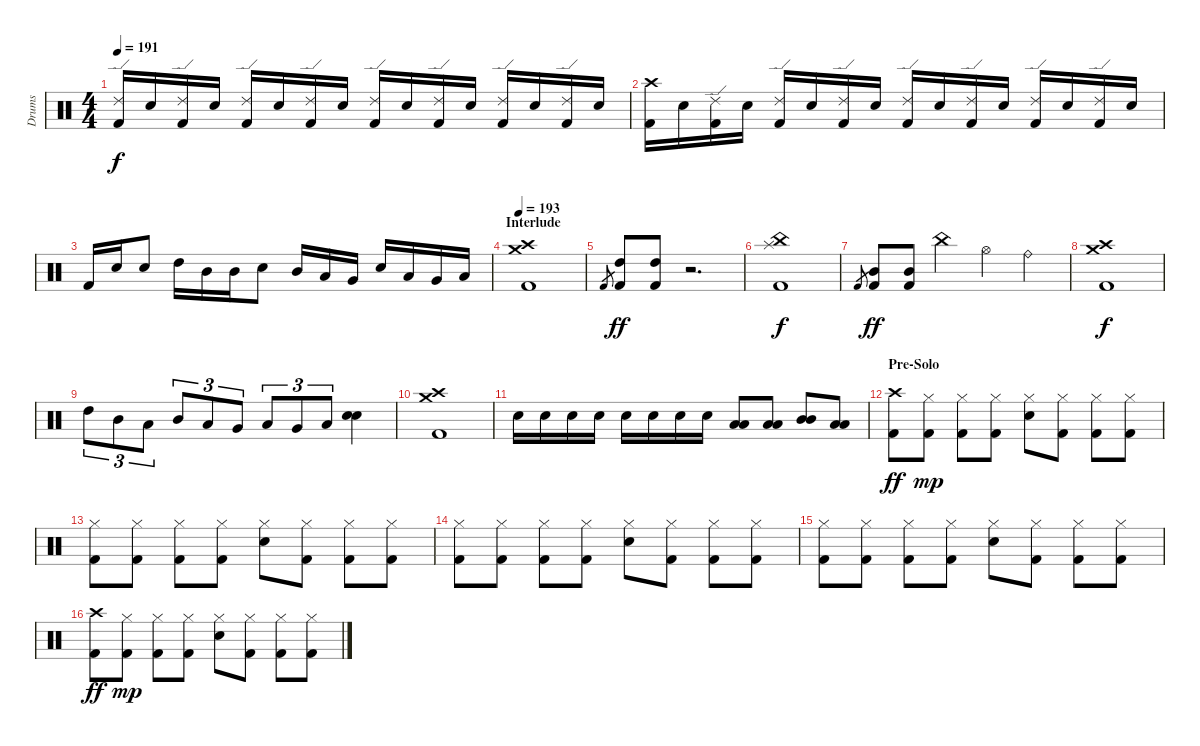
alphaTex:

\track ("Drums" "Drums") {instrument percussion}
\staff {score}
\articulation defaults
\ts (4 4)
\tempo 191
\clef neutral
\ks c
("Ride (edge) 2" "Kick (hit) 2").16{dy f} "Electric Snare (hit)".16 ("Ride (edge) 2" "Kick (hit) 2").16 "Electric Snare (hit)".16 ("Ride (edge) 2" "Kick (hit) 2").16 "Electric Snare (hit)".16 ("Ride (edge) 2" "Kick (hit) 2").16 "Electric Snare (hit)".16 ("Ride (edge) 2" "Kick (hit) 2").16 "Electric Snare (hit)".16 ("Ride (edge) 2" "Kick (hit) 2").16 "Electric Snare (hit)".16 ("Ride (edge) 2" "Kick (hit) 2").16 "Electric Snare (hit)".16 ("Ride (edge) 2" "Kick (hit) 2").16 "Electric Snare (hit)".16 |
("Crash high (hit)" "Kick (hit) 2").16 "Electric Snare (hit)".16 ("Ride (edge) 2" "Kick (hit) 2").16 "Electric Snare (hit)".16 ("Ride (edge) 2" "Kick (hit) 2").16 "Electric Snare (hit)".16 ("Ride (edge) 2" "Kick (hit) 2").16 "Electric Snare (hit)".16 ("Ride (edge) 2" "Kick (hit) 2").16 "Electric Snare (hit)".16 ("Ride (edge) 2" "Kick (hit) 2").16 "Electric Snare (hit)".16 ("Ride (edge) 2" "Kick (hit) 2").16 "Electric Snare (hit)".16 ("Ride (edge) 2" "Kick (hit) 2").16 "Electric Snare (hit)".16 |
"Kick (hit) 2".16 "Electric Snare (hit)".16 "Electric Snare (hit)".8 "High Tom (hit)".16 "Mid Tom (hit)".16 "Mid Tom (hit)".16 "Electric Snare (hit)".8 "Mid Tom (hit)".16 "Low Tom (hit)".16 "Very Low Tom (hit)".16 "Electric Snare (hit)".16 "Low Tom (hit)".16 "Very Low Tom (hit)".16 "Low Floor Tom (hit)".16 |
\section ("" "Interlude")
\tempo 193
("Crash medium (hit)" "Crash high (hit)" "Kick (hit) 2").1 |
"Kick (hit) 2".8{gr} ("High Tom (hit)" "Kick (hit) 2").8{dy ff} ("High Tom (hit)" "Kick (hit) 2").8 r.2{d} |
("China (hit)" "Splash (hit)" "Kick (hit) 2").1{dy f} |
"Kick (hit) 2".8{gr} ("Mid Tom (hit)" "Kick (hit) 2").8{dy ff} ("Mid Tom (hit)" "Kick (hit) 2").8 "China (hit)".4 "Hi-Hat (open)".4 "Ride (bell)".4 |
("Crash medium (hit)" "Crash high (hit)" "Kick (hit) 2").1{dy f} |
"High Tom (hit)".8{tu (3 2)} "Mid Tom (hit)".8{tu (3 2)} "Low Tom (hit)".8{tu (3 2)} "Mid Tom (hit)".8{tu (3 2)} "Low Tom (hit)".8{tu (3 2)} "Very Low Tom (hit)".8{tu (3 2)} "Low Tom (hit)".8{tu (3 2)} "Very Low Tom (hit)".8{tu (3 2)} "Low Floor Tom (hit)".8{tu (3 2)} ("Electric Snare (hit)" "Snare (hit) 2").4 |
("Crash medium (hit)" "Crash high (hit)" "Kick (hit) 2").1 |
"Electric Snare (hit)".16 "Electric Snare (hit)".16 "Electric Snare (hit)".16 "Electric Snare (hit)".16 "Electric Snare (hit)".16 "Electric Snare (hit)".16 "Electric Snare (hit)".16 "Electric Snare (hit)".16 ("Low Tom (hit)" "Low Tom (hit)").8{bd 240} ("Low Tom (hit)" "Low Tom (hit)").8{bd 240} ("Mid Tom (hit)" "Mid Tom (hit)").8{bd 240} ("Low Tom (hit)" "Low Tom (hit)").8{bd 240} |
\section ("" "Pre-Solo")
("Crash high (hit)" "Kick (hit) 2").8{dy ff} ("Hi-Hat (closed)" "Kick (hit) 2").8{dy mp} ("Hi-Hat (closed)" "Kick (hit) 2").8 ("Hi-Hat (closed)" "Kick (hit) 2").8 ("Hi-Hat (closed)" "Electric Snare (hit)").8 ("Hi-Hat (closed)" "Kick (hit) 2").8 ("Hi-Hat (closed)" "Kick (hit) 2").8 ("Hi-Hat (closed)" "Kick (hit) 2").8 |
("Hi-Hat (closed)" "Kick (hit) 2").8 ("Hi-Hat (closed)" "Kick (hit) 2").8 ("Hi-Hat (closed)" "Kick (hit) 2").8 ("Hi-Hat (closed)" "Kick (hit) 2").8 ("Hi-Hat (closed)" "Electric Snare (hit)").8 ("Hi-Hat (closed)" "Kick (hit) 2").8 ("Hi-Hat (closed)" "Kick (hit) 2").8 ("Hi-Hat (closed)" "Kick (hit) 2").8 |
("Hi-Hat (closed)" "Kick (hit) 2").8 ("Hi-Hat (closed)" "Kick (hit) 2").8 ("Hi-Hat (closed)" "Kick (hit) 2").8 ("Hi-Hat (closed)" "Kick (hit) 2").8 ("Hi-Hat (closed)" "Electric Snare (hit)").8 ("Hi-Hat (closed)" "Kick (hit) 2").8 ("Hi-Hat (closed)" "Kick (hit) 2").8 ("Hi-Hat (closed)" "Kick (hit) 2").8 |
("Hi-Hat (closed)" "Kick (hit) 2").8 ("Hi-Hat (closed)" "Kick (hit) 2").8 ("Hi-Hat (closed)" "Kick (hit) 2").8 ("Hi-Hat (closed)" "Kick (hit) 2").8 ("Hi-Hat (closed)" "Electric Snare (hit)").8 ("Hi-Hat (closed)" "Kick (hit) 2").8 ("Hi-Hat (closed)" "Kick (hit) 2").8 ("Hi-Hat (closed)" "Kick (hit) 2").8 |
("Crash high (hit)" "Kick (hit) 2").8{dy ff} ("Hi-Hat (closed)" "Kick (hit) 2").8{dy mp} ("Hi-Hat (closed)" "Kick (hit) 2").8 ("Hi-Hat (closed)" "Kick (hit) 2").8 ("Hi-Hat (closed)" "Electric Snare (hit)").8 ("Hi-Hat (closed)" "Kick (hit) 2").8 ("Hi-Hat (closed)" "Kick (hit) 2").8 ("Hi-Hat (closed)" "Kick (hit) 2").8
